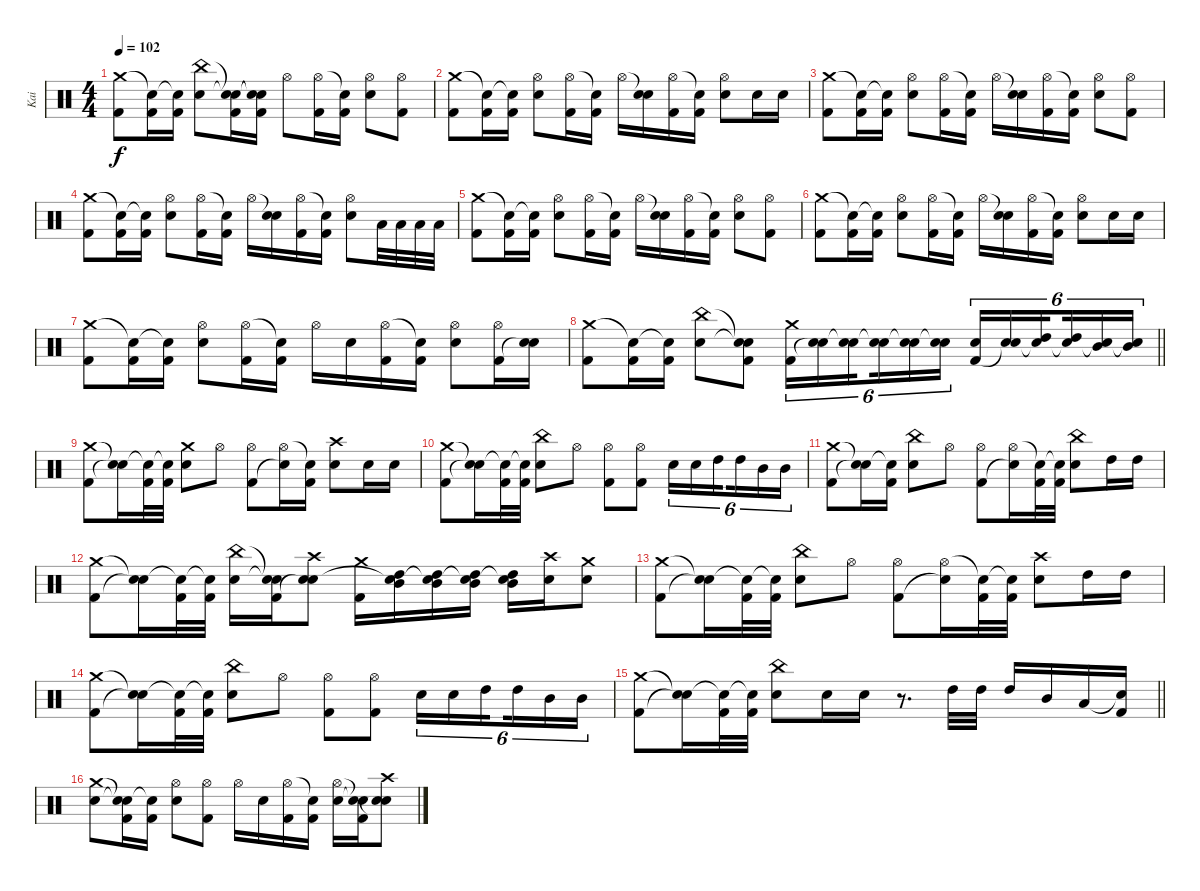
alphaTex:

\track ("Kai" "Kai") {instrument percussion}
\staff {score}
\articulation defaults
\ts (4 4)
\tempo 102
\clef neutral
\ks c
("Crash medium (hit)" "Kick (hit) 2").8{dy f} ("Snare (hit)"{t} "Kick (hit) 2").16 ("Snare (hit)"{t} "Kick (hit) 2").16 ("China (hit)" "Snare (hit) 2").8 ("Snare (hit)"{t} "Snare (hit)"{t} "Kick (hit) 2").16 ("Snare (hit)"{t} "Snare (hit)"{t} "Kick (hit) 2").16 "Hi-Hat (open)".8 ("Hi-Hat (open)" "Kick (hit) 2").16 ("Snare (hit)"{t} "Kick (hit) 2").16 ("Hi-Hat (open)" "Snare (hit) 2").8 ("Hi-Hat (open)" "Kick (hit) 2").8 |
("Crash medium (hit)" "Kick (hit) 2").8 ("Snare (hit)"{t} "Kick (hit) 2").16 ("Snare (hit)"{t} "Kick (hit) 2").16 ("Hi-Hat (open)" "Snare (hit) 2").8 ("Hi-Hat (open)" "Kick (hit) 2").16 ("Snare (hit)"{t} "Kick (hit) 2").16 "Hi-Hat (open)".16 ("Snare (hit)"{t} "Snare (hit) 2").16 ("Hi-Hat (open)" "Kick (hit) 2").16 ("Snare (hit)"{t} "Kick (hit) 2").16 ("Hi-Hat (open)" "Snare (hit) 2").8 "Snare (hit) 2".16 "Snare (hit) 2".16 |
("Crash medium (hit)" "Kick (hit) 2").8 ("Snare (hit)"{t} "Kick (hit) 2").16 ("Snare (hit)"{t} "Kick (hit) 2").16 ("Hi-Hat (open)" "Snare (hit) 2").8 ("Hi-Hat (open)" "Kick (hit) 2").16 ("Snare (hit)"{t} "Kick (hit) 2").16 "Hi-Hat (open)".16 ("Snare (hit)"{t} "Snare (hit) 2").16 ("Hi-Hat (open)" "Kick (hit) 2").16 ("Snare (hit)"{t} "Kick (hit) 2").16 ("Hi-Hat (open)" "Snare (hit) 2").8 ("Hi-Hat (open)" "Kick (hit) 2").8 |
("Crash medium (hit)" "Kick (hit) 2").8 ("Snare (hit)"{t} "Kick (hit) 2").16 ("Snare (hit)"{t} "Kick (hit) 2").16 ("Hi-Hat (open)" "Snare (hit) 2").8 ("Hi-Hat (open)" "Kick (hit) 2").16 ("Snare (hit)"{t} "Kick (hit) 2").16 "Hi-Hat (open)".16 ("Snare (hit)"{t} "Snare (hit) 2").16 ("Hi-Hat (open)" "Kick (hit) 2").16 ("Snare (hit)"{t} "Kick (hit) 2").16 ("Hi-Hat (open)" "Snare (hit) 2").8 "Low Tom (hit)".32 "Low Tom (hit)".32 "Low Tom (hit)".32 "Low Tom (hit)".32 |
("Crash medium (hit)" "Kick (hit) 2").8 ("Snare (hit)"{t} "Kick (hit) 2").16 ("Snare (hit)"{t} "Kick (hit) 2").16 ("Hi-Hat (open)" "Snare (hit) 2").8 ("Hi-Hat (open)" "Kick (hit) 2").16 ("Snare (hit)"{t} "Kick (hit) 2").16 "Hi-Hat (open)".16 ("Snare (hit)"{t} "Snare (hit) 2").16 ("Hi-Hat (open)" "Kick (hit) 2").16 ("Snare (hit)"{t} "Kick (hit) 2").16 ("Hi-Hat (open)" "Snare (hit) 2").8 ("Hi-Hat (open)" "Kick (hit) 2").8 |
("Crash medium (hit)" "Kick (hit) 2").8 ("Snare (hit)"{t} "Kick (hit) 2").16 ("Snare (hit)"{t} "Kick (hit) 2").16 ("Hi-Hat (open)" "Snare (hit) 2").8 ("Hi-Hat (open)" "Kick (hit) 2").16 ("Snare (hit)"{t} "Kick (hit) 2").16 "Hi-Hat (open)".16 ("Snare (hit)"{t} "Snare (hit) 2").16 ("Hi-Hat (open)" "Kick (hit) 2").16 ("Snare (hit)"{t} "Kick (hit) 2").16 ("Hi-Hat (open)" "Snare (hit) 2").8 "Snare (hit) 2".16 "Snare (hit) 2".16 |
("Crash medium (hit)" "Kick (hit) 2").8 ("Snare (hit)"{t} "Kick (hit) 2").16 ("Snare (hit)"{t} "Kick (hit) 2").16 ("Hi-Hat (open)" "Snare (hit) 2").8 ("Hi-Hat (open)" "Kick (hit) 2").16 ("Snare (hit)"{t} "Kick (hit) 2").16 "Hi-Hat (open)".16 "Snare (hit) 2".16 ("Hi-Hat (open)" "Kick (hit) 2").16 ("Snare (hit)"{t} "Kick (hit) 2").16 ("Hi-Hat (open)" "Snare (hit) 2").8 ("Hi-Hat (open)" "Kick (hit) 2").16 ("Snare (hit) 2" "Snare (hit)"{t}).16 |
\barLineRight lightlight
("Crash medium (hit)" "Kick (hit) 2").8 ("Snare (hit)"{t} "Kick (hit) 2").16 ("Snare (hit)"{t} "Kick (hit) 2").16 ("China (hit)" "Snare (hit) 2").8 ("Snare (hit)"{t} "Snare (hit)"{t} "Kick (hit) 2").8 ("Crash medium (hit)" "Kick (hit) 2").16{tu (6 4)} ("Snare (hit) 2" "Snare (hit)"{t}).16{tu (6 4)} ("Snare (hit) 2" "Snare (hit)"{t}).16{tu (6 4) beam splitsecondary} ("Snare (hit) 2" "Snare (hit)"{t}).16{tu (6 4)} ("Snare (hit) 2" "Snare (hit)"{t}).16{tu (6 4)} ("Snare (hit) 2" "Snare (hit)"{t}).16{tu (6 4)} ("Snare (hit) 2" "Kick (hit) 2").16{tu (6 4)} ("Snare (hit) 2" "Snare (hit)"{t}).16{tu (6 4)} ("High Tom (hit)" "Snare (hit)"{t}).16{tu (6 4) beam splitsecondary} ("High Tom (hit)" "Snare (hit)"{t}).16{tu (6 4)} ("Mid Tom (hit)" "Snare (hit)"{t}).16{tu (6 4)} ("Mid Tom (hit)" "Snare (hit)"{t}).16{tu (6 4)} |
("Crash medium (hit)" "Kick (hit) 2").8 ("Snare (hit)"{t} "Snare (hit)"{t}).16 ("Snare (hit)"{t} "Kick (hit) 2").32 ("Snare (hit)"{t} "Kick (hit) 2").32 ("Crash medium (hit)" "Snare (hit) 2").8 "Hi-Hat (open)".8 ("Hi-Hat (open)" "Kick (hit) 2").8 ("Hi-Hat (open)" "Snare (hit)"{t}).16 ("Snare (hit)"{t} "Kick (hit) 2").16 ("Crash high (hit)" "Snare (hit) 2").8 "Snare (hit) 2".16 "Snare (hit) 2".16 |
("Crash medium (hit)" "Kick (hit) 2").8 ("Snare (hit)"{t} "Snare (hit)"{t}).16 ("Snare (hit)"{t} "Kick (hit) 2").32 ("Snare (hit)"{t} "Kick (hit) 2").32 ("China (hit)" "Snare (hit) 2").8 "Hi-Hat (open)".8 ("Hi-Hat (open)" "Kick (hit) 2").8 ("Hi-Hat (open)" "Kick (hit) 2").8 "Snare (hit) 2".16{tu (6 4)} "Snare (hit) 2".16{tu (6 4)} "High Tom (hit)".16{tu (6 4) beam splitsecondary} "High Tom (hit)".16{tu (6 4)} "Mid Tom (hit)".16{tu (6 4)} "Mid Tom (hit)".16{tu (6 4)} |
("Crash medium (hit)" "Kick (hit) 2").8 ("Snare (hit)"{t} "Snare (hit)"{t}).16 ("Snare (hit)"{t} "Kick (hit) 2").16 ("China (hit)" "Snare (hit) 2").8 "Hi-Hat (open)".8 ("Hi-Hat (open)" "Kick (hit) 2").8 ("Hi-Hat (open)" "Snare (hit)"{t}).16 ("Snare (hit)"{t} "Kick (hit) 2").32 ("Snare (hit)"{t} "Kick (hit) 2").32 ("China (hit)" "Snare (hit) 2").8 "High Tom (hit)".16 "High Tom (hit)".16 |
("Crash medium (hit)" "Kick (hit) 2").8 ("Snare (hit)"{t} "Snare (hit)"{t}).16 ("Snare (hit)"{t} "Kick (hit) 2").32 ("Snare (hit)"{t} "Kick (hit) 2").32 ("China (hit)" "Snare (hit) 2").16 ("Snare (hit)"{t} "Snare (hit)"{t} "Kick (hit) 2").16 ("Crash high (hit)" "Snare (hit) 2" "Snare (hit)"{t}).8 ("Crash medium (hit)" "Kick (hit) 2").16 ("High Tom (hit)" "Mid Tom (hit)" "Snare (hit)"{t}).16 ("High Tom (hit)" "Mid Tom (hit)" "Snare (hit)"{t}).16 ("High Tom (hit)" "Mid Tom (hit)" "Snare (hit)"{t}).16 ("High Tom (hit)" "Mid Tom (hit)" "Snare (hit)"{t}).16 ("Crash high (hit)" "Snare (hit) 2").16 ("Crash medium (hit)" "Snare (hit) 2").8 |
("Crash medium (hit)" "Kick (hit) 2").8 ("Snare (hit)"{t} "Snare (hit)"{t}).16 ("Snare (hit)"{t} "Kick (hit) 2").32 ("Snare (hit)"{t} "Kick (hit) 2").32 ("China (hit)" "Snare (hit) 2").8 "Hi-Hat (open)".8 ("Hi-Hat (open)" "Kick (hit) 2").8 ("Hi-Hat (open)" "Snare (hit)"{t}).16 ("Snare (hit)"{t} "Kick (hit) 2").32 ("Snare (hit)"{t} "Kick (hit) 2").32 ("Crash high (hit)" "Snare (hit) 2").8 "High Tom (hit)".16 "High Tom (hit)".16 |
("Crash medium (hit)" "Kick (hit) 2").8 ("Snare (hit)"{t} "Snare (hit)"{t}).16 ("Snare (hit)"{t} "Kick (hit) 2").32 ("Snare (hit)"{t} "Kick (hit) 2").32 ("China (hit)" "Snare (hit) 2").8 "Hi-Hat (open)".8 ("Hi-Hat (open)" "Kick (hit) 2").8 ("Hi-Hat (open)" "Kick (hit) 2").8 "Snare (hit) 2".16{tu (6 4)} "Snare (hit) 2".16{tu (6 4)} "High Tom (hit)".16{tu (6 4) beam splitsecondary} "High Tom (hit)".16{tu (6 4)} "Mid Tom (hit)".16{tu (6 4)} "Mid Tom (hit)".16{tu (6 4)} |
\barLineRight lightlight
("Crash medium (hit)" "Kick (hit) 2").8 ("Snare (hit)"{t} "Snare (hit)"{t}).16 ("Snare (hit)"{t} "Kick (hit) 2").32 ("Snare (hit)"{t} "Kick (hit) 2").32 ("China (hit)" "Snare (hit) 2").8 "Snare (hit) 2".16 "Snare (hit) 2".16 r.8{d} "High Tom (hit)".32 "High Tom (hit)".32 "High Tom (hit)".16 "Mid Tom (hit)".16 "Low Tom (hit)".16 ("Snare (hit)"{t} "Kick (hit) 2").16 |
("Crash medium (hit)" "Snare (hit) 2").8 ("Snare (hit)"{t} "Snare (hit)"{t} "Kick (hit) 2").16 ("Snare (hit)"{t} "Kick (hit) 2").16 ("Hi-Hat (open)" "Snare (hit) 2").8 ("Hi-Hat (open)" "Kick (hit) 2").8 "Hi-Hat (open)".16 "Snare (hit) 2".16 ("Hi-Hat (open)" "Kick (hit) 2").16 ("Snare (hit)"{t} "Kick (hit) 2").16 ("Hi-Hat (open)" "Snare (hit) 2").16 ("Snare (hit)"{t} "Snare (hit)"{t} "Kick (hit) 2").16 ("Crash high (hit)" "Snare (hit) 2" "Snare (hit)"{t}).8
